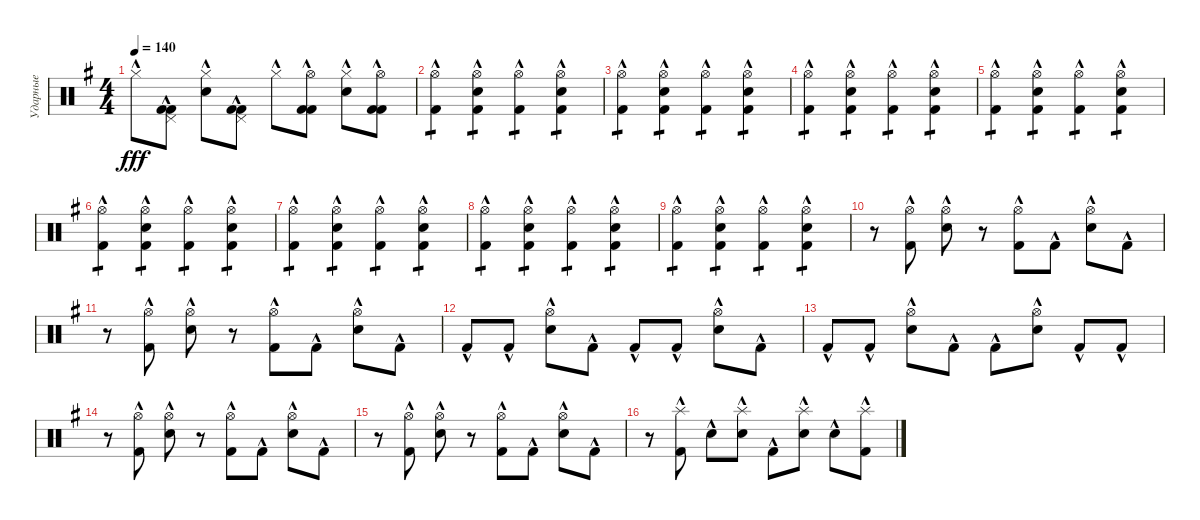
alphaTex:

\track ("Ударные" "Ударные") {instrument percussion}
\staff {score}
\articulation defaults
\ts (4 4)
\tempo 140
\clef neutral
\ks g "Hi-Hat (closed)"{hac}.8{dy fff}
("Pedal Hi-Hat (hit)"{hac} "Kick (hit) 2"{hac} "Kick (hit) 2"{hac}).8 ("Hi-Hat (closed)"{hac} "Electric Snare (hit)"{hac}).8 ("Pedal Hi-Hat (hit)"{hac} "Kick (hit) 2"{hac} "Kick (hit) 2"{hac}).8 "Hi-Hat (closed)"{hac}.8 ("Hi-Hat (open)"{hac} "Kick (hit) 2"{hac} "Kick (hit) 2"{hac}).8 ("Hi-Hat (closed)"{hac} "Electric Snare (hit)"{hac}).8 ("Hi-Hat (open)"{hac} "Kick (hit) 2"{hac} "Kick (hit) 2"{hac}).8 |
("Hi-Hat (open)"{hac} "Kick (hit) 2"{hac}).4{tp 1} ("Hi-Hat (open)"{hac} "Electric Snare (hit)"{hac} "Kick (hit) 2"{hac}).4{tp 1} ("Hi-Hat (open)"{hac} "Kick (hit) 2"{hac}).4{tp 1} ("Hi-Hat (open)"{hac} "Electric Snare (hit)"{hac} "Kick (hit) 2"{hac}).4{tp 1} |
("Hi-Hat (open)"{hac} "Kick (hit) 2"{hac}).4{tp 1} ("Hi-Hat (open)"{hac} "Electric Snare (hit)"{hac} "Kick (hit) 2"{hac}).4{tp 1} ("Hi-Hat (open)"{hac} "Kick (hit) 2"{hac}).4{tp 1} ("Hi-Hat (open)"{hac} "Electric Snare (hit)"{hac} "Kick (hit) 2"{hac}).4{tp 1} |
("Hi-Hat (open)"{hac} "Kick (hit) 2"{hac}).4{tp 1} ("Hi-Hat (open)"{hac} "Electric Snare (hit)"{hac} "Kick (hit) 2"{hac}).4{tp 1} ("Hi-Hat (open)"{hac} "Kick (hit) 2"{hac}).4{tp 1} ("Hi-Hat (open)"{hac} "Electric Snare (hit)"{hac} "Kick (hit) 2"{hac}).4{tp 1} |
("Hi-Hat (open)"{hac} "Kick (hit) 2"{hac}).4{tp 1} ("Hi-Hat (open)"{hac} "Electric Snare (hit)"{hac} "Kick (hit) 2"{hac}).4{tp 1} ("Hi-Hat (open)"{hac} "Kick (hit) 2"{hac}).4{tp 1} ("Hi-Hat (open)"{hac} "Electric Snare (hit)"{hac} "Kick (hit) 2"{hac}).4{tp 1} |
("Hi-Hat (open)"{hac} "Kick (hit) 2"{hac}).4{tp 1} ("Hi-Hat (open)"{hac} "Electric Snare (hit)"{hac} "Kick (hit) 2"{hac}).4{tp 1} ("Hi-Hat (open)"{hac} "Kick (hit) 2"{hac}).4{tp 1} ("Hi-Hat (open)"{hac} "Electric Snare (hit)"{hac} "Kick (hit) 2"{hac}).4{tp 1} |
("Hi-Hat (open)"{hac} "Kick (hit) 2"{hac}).4{tp 1} ("Hi-Hat (open)"{hac} "Electric Snare (hit)"{hac} "Kick (hit) 2"{hac}).4{tp 1} ("Hi-Hat (open)"{hac} "Kick (hit) 2"{hac}).4{tp 1} ("Hi-Hat (open)"{hac} "Electric Snare (hit)"{hac} "Kick (hit) 2"{hac}).4{tp 1} |
("Hi-Hat (open)"{hac} "Kick (hit) 2"{hac}).4{tp 1} ("Hi-Hat (open)"{hac} "Electric Snare (hit)"{hac} "Kick (hit) 2"{hac}).4{tp 1} ("Hi-Hat (open)"{hac} "Kick (hit) 2"{hac}).4{tp 1} ("Hi-Hat (open)"{hac} "Electric Snare (hit)"{hac} "Kick (hit) 2"{hac}).4{tp 1} |
("Hi-Hat (open)"{hac} "Kick (hit) 2"{hac}).4{tp 1} ("Hi-Hat (open)"{hac} "Electric Snare (hit)"{hac} "Kick (hit) 2"{hac}).4{tp 1} ("Hi-Hat (open)"{hac} "Kick (hit) 2"{hac}).4{tp 1} ("Hi-Hat (open)"{hac} "Electric Snare (hit)"{hac} "Kick (hit) 2"{hac}).4{tp 1} |
r.8 ("Hi-Hat (open)"{hac} "Kick (hit) 2"{hac}).8 ("Hi-Hat (open)"{hac} "Electric Snare (hit)"{hac}).8 r.8 ("Hi-Hat (open)"{hac} "Kick (hit) 2"{hac}).8 "Kick (hit) 2"{hac}.8 ("Hi-Hat (open)"{hac} "Electric Snare (hit)"{hac}).8 "Kick (hit) 2"{hac}.8 |
r.8 ("Hi-Hat (open)"{hac} "Kick (hit) 2"{hac}).8 ("Hi-Hat (open)"{hac} "Electric Snare (hit)"{hac}).8 r.8 ("Hi-Hat (open)"{hac} "Kick (hit) 2"{hac}).8 "Kick (hit) 2"{hac}.8 ("Hi-Hat (open)"{hac} "Electric Snare (hit)"{hac}).8 "Kick (hit) 2"{hac}.8 |
"Kick (hit) 2"{hac}.8 "Kick (hit) 2"{hac}.8 ("Hi-Hat (open)"{hac} "Electric Snare (hit)"{hac}).8 "Kick (hit) 2"{hac}.8 "Kick (hit) 2"{hac}.8 "Kick (hit) 2"{hac}.8 ("Hi-Hat (open)"{hac} "Electric Snare (hit)"{hac}).8 "Kick (hit) 2"{hac}.8 |
"Kick (hit) 2"{hac}.8 "Kick (hit) 2"{hac}.8 ("Hi-Hat (open)"{hac} "Electric Snare (hit)"{hac}).8 "Kick (hit) 2"{hac}.8 "Kick (hit) 2"{hac}.8 ("Hi-Hat (open)"{hac} "Electric Snare (hit)"{hac}).8 "Kick (hit) 2"{hac}.8 "Kick (hit) 2"{hac}.8 |
r.8 ("Hi-Hat (open)"{hac} "Kick (hit) 2"{hac}).8 ("Hi-Hat (open)"{hac} "Electric Snare (hit)"{hac}).8 r.8 ("Hi-Hat (open)"{hac} "Kick (hit) 2"{hac}).8 "Kick (hit) 2"{hac}.8 ("Hi-Hat (open)"{hac} "Electric Snare (hit)"{hac}).8 "Kick (hit) 2"{hac}.8 |
r.8 ("Hi-Hat (open)"{hac} "Kick (hit) 2"{hac}).8 ("Hi-Hat (open)"{hac} "Electric Snare (hit)"{hac}).8 r.8 ("Hi-Hat (open)"{hac} "Kick (hit) 2"{hac}).8 "Kick (hit) 2"{hac}.8 ("Hi-Hat (open)"{hac} "Electric Snare (hit)"{hac}).8 "Kick (hit) 2"{hac}.8 |
r.8 ("Splash (hit)"{hac} "Kick (hit) 2"{hac}).8 "Electric Snare (hit)"{hac}.8 ("Splash (hit)"{hac} "Electric Snare (hit)"{hac}).8 "Kick (hit) 2"{hac}.8 ("Splash (hit)"{hac} "Electric Snare (hit)"{hac}).8 "Electric Snare (hit)"{hac}.8 ("Splash (hit)"{hac} "Kick (hit) 2"{hac}).8
